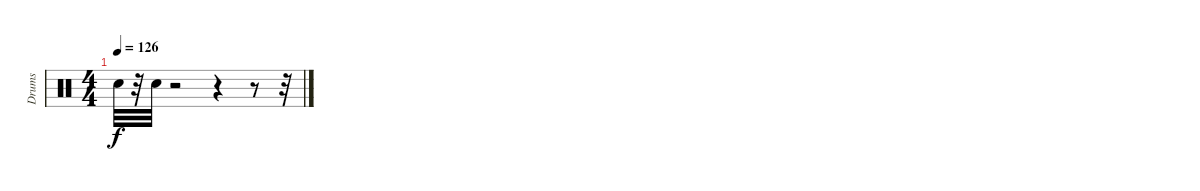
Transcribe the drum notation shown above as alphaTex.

\track ("Drums" "Drums") {instrument percussion}
\staff {score}
\articulation defaults
\ts (4 4)
\tempo 126
\clef neutral
\ks c "Electric Snare (hit)".32{dy f}
r.32 "Electric Snare (hit)".32 r.2 r.4 r.8 r.32
